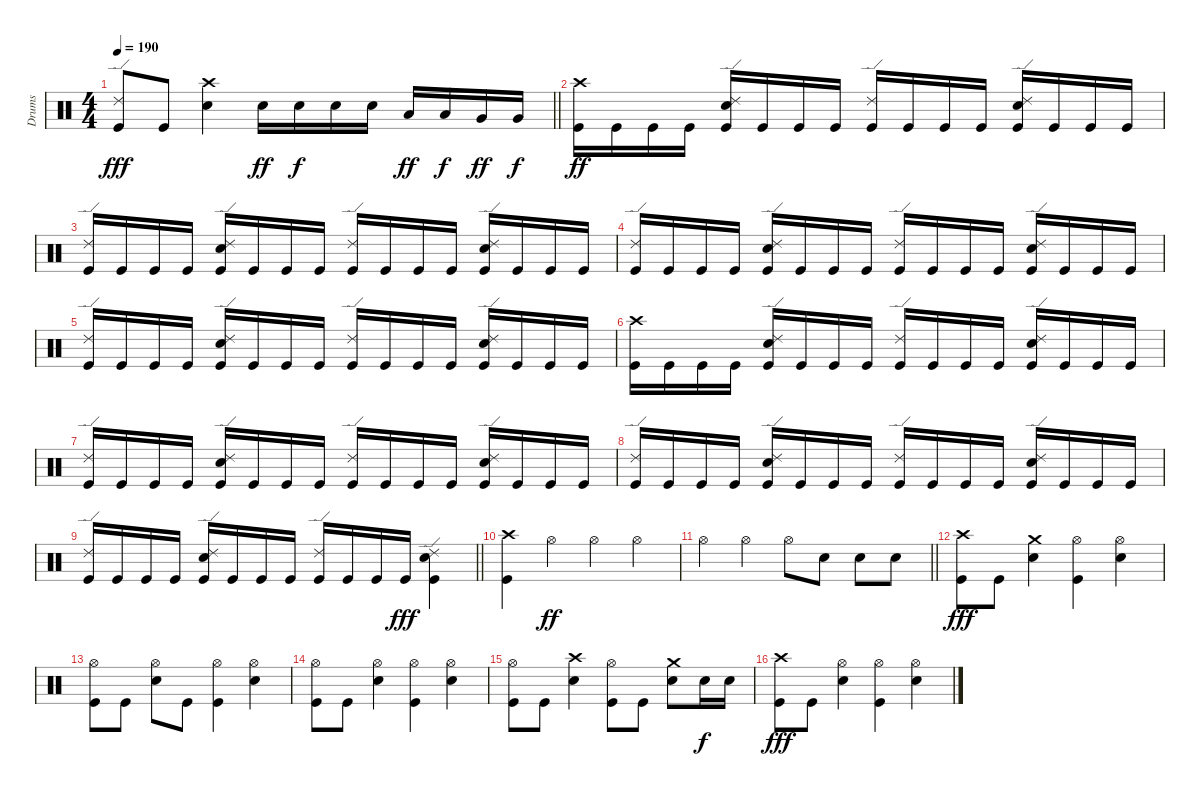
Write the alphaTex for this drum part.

\track ("Drums" "Drums") {instrument percussion}
\staff {score}
\articulation defaults
\ts (4 4)
\tempo 190
\clef neutral
\barLineRight lightlight
\ks c
("Ride (edge) 2" "Kick (hit)").8{dy fff} "Kick (hit)".8 ("Crash high (hit)" "Snare (hit) 2").4 "Snare (hit) 2".16{dy ff} "Snare (hit) 2".16{dy f} "Snare (hit) 2".16 "Snare (hit) 2".16 "Low Tom (hit)".16{dy ff} "Low Tom (hit)".16{dy f} "Very Low Tom (hit)".16{dy ff} "Very Low Tom (hit)".16{dy f} |
("Crash high (hit)" "Kick (hit)").16{dy ff} "Kick (hit)".16 "Kick (hit)".16 "Kick (hit)".16 ("Ride (edge) 2" "Snare (hit) 2" "Kick (hit)").16 "Kick (hit)".16 "Kick (hit)".16 "Kick (hit)".16 ("Ride (edge) 2" "Kick (hit)").16 "Kick (hit)".16 "Kick (hit)".16 "Kick (hit)".16 ("Ride (edge) 2" "Snare (hit) 2" "Kick (hit)").16 "Kick (hit)".16 "Kick (hit)".16 "Kick (hit)".16 |
("Ride (edge) 2" "Kick (hit)").16 "Kick (hit)".16 "Kick (hit)".16 "Kick (hit)".16 ("Ride (edge) 2" "Snare (hit) 2" "Kick (hit)").16 "Kick (hit)".16 "Kick (hit)".16 "Kick (hit)".16 ("Ride (edge) 2" "Kick (hit)").16 "Kick (hit)".16 "Kick (hit)".16 "Kick (hit)".16 ("Ride (edge) 2" "Snare (hit) 2" "Kick (hit)").16 "Kick (hit)".16 "Kick (hit)".16 "Kick (hit)".16 |
("Ride (edge) 2" "Kick (hit)").16 "Kick (hit)".16 "Kick (hit)".16 "Kick (hit)".16 ("Ride (edge) 2" "Snare (hit) 2" "Kick (hit)").16 "Kick (hit)".16 "Kick (hit)".16 "Kick (hit)".16 ("Ride (edge) 2" "Kick (hit)").16 "Kick (hit)".16 "Kick (hit)".16 "Kick (hit)".16 ("Ride (edge) 2" "Snare (hit) 2" "Kick (hit)").16 "Kick (hit)".16 "Kick (hit)".16 "Kick (hit)".16 |
("Ride (edge) 2" "Kick (hit)").16 "Kick (hit)".16 "Kick (hit)".16 "Kick (hit)".16 ("Ride (edge) 2" "Snare (hit) 2" "Kick (hit)").16 "Kick (hit)".16 "Kick (hit)".16 "Kick (hit)".16 ("Ride (edge) 2" "Kick (hit)").16 "Kick (hit)".16 "Kick (hit)".16 "Kick (hit)".16 ("Ride (edge) 2" "Snare (hit) 2" "Kick (hit)").16 "Kick (hit)".16 "Kick (hit)".16 "Kick (hit)".16 |
("Crash high (hit)" "Kick (hit)").16 "Kick (hit)".16 "Kick (hit)".16 "Kick (hit)".16 ("Ride (edge) 2" "Snare (hit) 2" "Kick (hit)").16 "Kick (hit)".16 "Kick (hit)".16 "Kick (hit)".16 ("Ride (edge) 2" "Kick (hit)").16 "Kick (hit)".16 "Kick (hit)".16 "Kick (hit)".16 ("Ride (edge) 2" "Snare (hit) 2" "Kick (hit)").16 "Kick (hit)".16 "Kick (hit)".16 "Kick (hit)".16 |
("Ride (edge) 2" "Kick (hit)").16 "Kick (hit)".16 "Kick (hit)".16 "Kick (hit)".16 ("Ride (edge) 2" "Snare (hit) 2" "Kick (hit)").16 "Kick (hit)".16 "Kick (hit)".16 "Kick (hit)".16 ("Ride (edge) 2" "Kick (hit)").16 "Kick (hit)".16 "Kick (hit)".16 "Kick (hit)".16 ("Ride (edge) 2" "Snare (hit) 2" "Kick (hit)").16 "Kick (hit)".16 "Kick (hit)".16 "Kick (hit)".16 |
("Ride (edge) 2" "Kick (hit)").16 "Kick (hit)".16 "Kick (hit)".16 "Kick (hit)".16 ("Ride (edge) 2" "Snare (hit) 2" "Kick (hit)").16 "Kick (hit)".16 "Kick (hit)".16 "Kick (hit)".16 ("Ride (edge) 2" "Kick (hit)").16 "Kick (hit)".16 "Kick (hit)".16 "Kick (hit)".16 ("Ride (edge) 2" "Snare (hit) 2" "Kick (hit)").16 "Kick (hit)".16 "Kick (hit)".16 "Kick (hit)".16 |
\barLineRight lightlight
("Ride (edge) 2" "Kick (hit)").16 "Kick (hit)".16 "Kick (hit)".16 "Kick (hit)".16 ("Ride (edge) 2" "Snare (hit) 2" "Kick (hit)").16 "Kick (hit)".16 "Kick (hit)".16 "Kick (hit)".16 ("Ride (edge) 2" "Kick (hit)").16 "Kick (hit)".16 "Kick (hit)".16 "Kick (hit)".16{dy fff} ("Ride (edge) 2" "Snare (hit) 2" "Kick (hit)").4 |
("Crash high (hit)" "Kick (hit)").4 "Hi-Hat (open)".4{dy ff} "Hi-Hat (open)".4 "Hi-Hat (open)".4 |
\barLineRight lightlight "Hi-Hat (open)".4 "Hi-Hat (open)".4 "Hi-Hat (open)".8 "Snare (hit) 2".8 "Snare (hit) 2".8 "Snare (hit) 2".8
|
("Crash high (hit)" "Kick (hit)").8{dy fff} "Kick (hit)".8 ("Crash medium (hit)" "Snare (hit) 2").4 ("Hi-Hat (open)" "Kick (hit)").4 ("Hi-Hat (open)" "Snare (hit) 2").4 |
("Hi-Hat (open)" "Kick (hit)").8 "Kick (hit)".8 ("Hi-Hat (open)" "Snare (hit) 2").8 "Kick (hit)".8 ("Hi-Hat (open)" "Kick (hit)").4 ("Hi-Hat (open)" "Snare (hit) 2").4 |
("Hi-Hat (open)" "Kick (hit)").8 "Kick (hit)".8 ("Hi-Hat (open)" "Snare (hit) 2").4 ("Hi-Hat (open)" "Kick (hit)").4 ("Hi-Hat (open)" "Snare (hit) 2").4 |
("Hi-Hat (open)" "Kick (hit)").8 "Kick (hit)".8 ("Crash high (hit)" "Snare (hit) 2").4 ("Hi-Hat (open)" "Kick (hit)").8 "Kick (hit)".8 ("Crash medium (hit)" "Snare (hit) 2").8 "Snare (hit) 2".16{dy f} "Snare (hit) 2".16 |
("Crash high (hit)" "Kick (hit)").8{dy fff} "Kick (hit)".8 ("Hi-Hat (open)" "Snare (hit) 2").4 ("Hi-Hat (open)" "Kick (hit)").4 ("Hi-Hat (open)" "Snare (hit) 2").4
